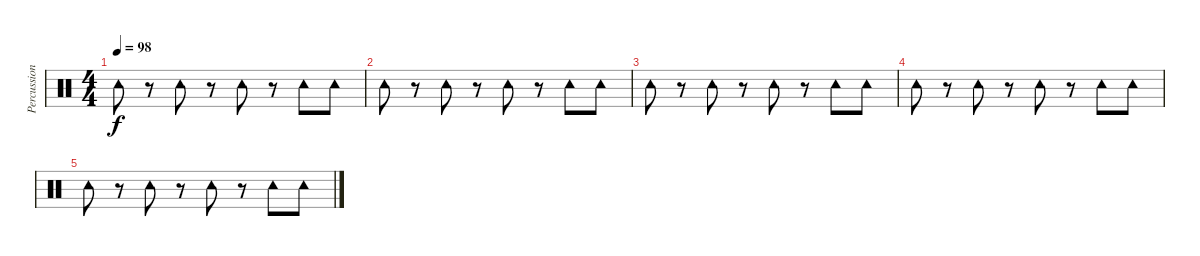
\track ("Percussions" "Percussion") {instrument percussion}
\staff {score}
\articulation defaults
\ts (4 4)
\tempo 98
\clef neutral
\ks c "Tambourine (hit)".8{dy f}
r.8 "Tambourine (hit)".8 r.8 "Tambourine (hit)".8 r.8 "Tambourine (hit)".8 "Tambourine (hit)".8 |
"Tambourine (hit)".8 r.8 "Tambourine (hit)".8 r.8 "Tambourine (hit)".8 r.8 "Tambourine (hit)".8 "Tambourine (hit)".8 |
"Tambourine (hit)".8 r.8 "Tambourine (hit)".8 r.8 "Tambourine (hit)".8 r.8 "Tambourine (hit)".8 "Tambourine (hit)".8 |
"Tambourine (hit)".8 r.8 "Tambourine (hit)".8 r.8 "Tambourine (hit)".8 r.8 "Tambourine (hit)".8 "Tambourine (hit)".8 |
"Tambourine (hit)".8 r.8 "Tambourine (hit)".8 r.8 "Tambourine (hit)".8 r.8 "Tambourine (hit)".8 "Tambourine (hit)".8
